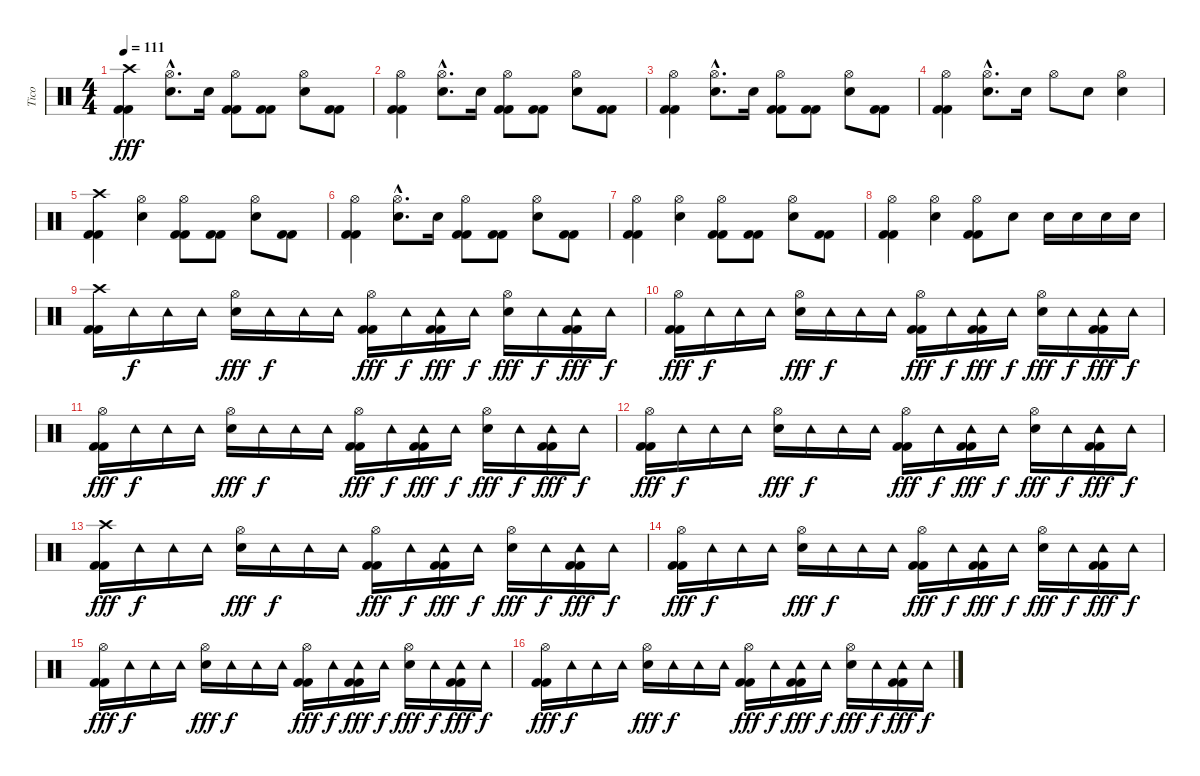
\track ("Tico" "Tico") {instrument percussion}
\staff {score}
\articulation defaults
\ts (4 4)
\tempo 111
\clef neutral
\ks c
("Crash high (hit)" "Kick (hit) 2" "Kick (hit) 2").4{dy fff} ("Hi-Hat (open)"{hac} "Snare (hit) 2"{hac}).8{d} "Snare (hit) 2".16 ("Hi-Hat (open)" "Kick (hit) 2" "Kick (hit) 2").8 ("Kick (hit) 2" "Kick (hit) 2").8 ("Hi-Hat (open)" "Snare (hit) 2").8 ("Kick (hit) 2" "Kick (hit) 2").8 |
("Hi-Hat (open)" "Kick (hit) 2" "Kick (hit) 2").4 ("Hi-Hat (open)"{hac} "Snare (hit) 2"{hac}).8{d} "Snare (hit) 2".16 ("Hi-Hat (open)" "Kick (hit) 2" "Kick (hit) 2").8 ("Kick (hit) 2" "Kick (hit) 2").8 ("Hi-Hat (open)" "Snare (hit) 2").8 ("Kick (hit) 2" "Kick (hit) 2").8 |
("Hi-Hat (open)" "Kick (hit) 2" "Kick (hit) 2").4 ("Hi-Hat (open)"{hac} "Snare (hit) 2"{hac}).8{d} "Snare (hit) 2".16 ("Hi-Hat (open)" "Kick (hit) 2" "Kick (hit) 2").8 ("Kick (hit) 2" "Kick (hit) 2").8 ("Hi-Hat (open)" "Snare (hit) 2").8 ("Kick (hit) 2" "Kick (hit) 2").8 |
("Hi-Hat (open)" "Kick (hit) 2" "Kick (hit) 2").4 ("Hi-Hat (open)"{hac} "Snare (hit) 2"{hac}).8{d} "Snare (hit) 2".16 "Hi-Hat (open)".8 "Snare (hit) 2".8 ("Hi-Hat (open)" "Snare (hit) 2").4 |
("Crash high (hit)" "Kick (hit) 2" "Kick (hit) 2").4 ("Hi-Hat (open)" "Snare (hit) 2").4 ("Hi-Hat (open)" "Kick (hit) 2" "Kick (hit) 2").8 ("Kick (hit) 2" "Kick (hit) 2").8 ("Hi-Hat (open)" "Snare (hit) 2").8 ("Kick (hit) 2" "Kick (hit) 2").8 |
("Hi-Hat (open)" "Kick (hit) 2" "Kick (hit) 2").4 ("Hi-Hat (open)"{hac} "Snare (hit) 2"{hac}).8{d} "Snare (hit) 2".16 ("Hi-Hat (open)" "Kick (hit) 2" "Kick (hit) 2").8 ("Kick (hit) 2" "Kick (hit) 2").8 ("Hi-Hat (open)" "Snare (hit) 2").8 ("Kick (hit) 2" "Kick (hit) 2").8 |
("Hi-Hat (open)" "Kick (hit) 2" "Kick (hit) 2").4 ("Hi-Hat (open)" "Snare (hit) 2").4 ("Hi-Hat (open)" "Kick (hit) 2" "Kick (hit) 2").8 ("Kick (hit) 2" "Kick (hit) 2").8 ("Hi-Hat (open)" "Snare (hit) 2").8 ("Kick (hit) 2" "Kick (hit) 2").8 |
("Hi-Hat (open)" "Kick (hit) 2" "Kick (hit) 2").4 ("Hi-Hat (open)" "Snare (hit) 2").4 ("Hi-Hat (open)" "Kick (hit) 2" "Kick (hit) 2").8 "Snare (hit) 2".8 "Snare (hit) 2".16 "Snare (hit) 2".16 "Snare (hit) 2".16 "Snare (hit) 2".16 |
("Crash high (hit)" "Kick (hit) 2" "Kick (hit) 2").16 "Tambourine (hit)".16{dy f} "Tambourine (hit)".16 "Tambourine (hit)".16 ("Hi-Hat (open)" "Snare (hit) 2").16{dy fff} "Tambourine (hit)".16{dy f} "Tambourine (hit)".16 "Tambourine (hit)".16 ("Hi-Hat (open)" "Kick (hit) 2" "Kick (hit) 2").16{dy fff} "Tambourine (hit)".16{dy f} ("Tambourine (hit)" "Kick (hit) 2" "Kick (hit) 2").16{dy fff} "Tambourine (hit)".16{dy f} ("Hi-Hat (open)" "Snare (hit) 2").16{dy fff} "Tambourine (hit)".16{dy f} ("Tambourine (hit)" "Kick (hit) 2" "Kick (hit) 2").16{dy fff} "Tambourine (hit)".16{dy f} |
("Hi-Hat (open)" "Kick (hit) 2" "Kick (hit) 2").16{dy fff} "Tambourine (hit)".16{dy f} "Tambourine (hit)".16 "Tambourine (hit)".16 ("Hi-Hat (open)" "Snare (hit) 2").16{dy fff} "Tambourine (hit)".16{dy f} "Tambourine (hit)".16 "Tambourine (hit)".16 ("Hi-Hat (open)" "Kick (hit) 2" "Kick (hit) 2").16{dy fff} "Tambourine (hit)".16{dy f} ("Tambourine (hit)" "Kick (hit) 2" "Kick (hit) 2").16{dy fff} "Tambourine (hit)".16{dy f} ("Hi-Hat (open)" "Snare (hit) 2").16{dy fff} "Tambourine (hit)".16{dy f} ("Tambourine (hit)" "Kick (hit) 2" "Kick (hit) 2").16{dy fff} "Tambourine (hit)".16{dy f} |
("Hi-Hat (open)" "Kick (hit) 2" "Kick (hit) 2").16{dy fff} "Tambourine (hit)".16{dy f} "Tambourine (hit)".16 "Tambourine (hit)".16 ("Hi-Hat (open)" "Snare (hit) 2").16{dy fff} "Tambourine (hit)".16{dy f} "Tambourine (hit)".16 "Tambourine (hit)".16 ("Hi-Hat (open)" "Kick (hit) 2" "Kick (hit) 2").16{dy fff} "Tambourine (hit)".16{dy f} ("Tambourine (hit)" "Kick (hit) 2" "Kick (hit) 2").16{dy fff} "Tambourine (hit)".16{dy f} ("Hi-Hat (open)" "Snare (hit) 2").16{dy fff} "Tambourine (hit)".16{dy f} ("Tambourine (hit)" "Kick (hit) 2" "Kick (hit) 2").16{dy fff} "Tambourine (hit)".16{dy f} |
("Hi-Hat (open)" "Kick (hit) 2" "Kick (hit) 2").16{dy fff} "Tambourine (hit)".16{dy f} "Tambourine (hit)".16 "Tambourine (hit)".16 ("Hi-Hat (open)" "Snare (hit) 2").16{dy fff} "Tambourine (hit)".16{dy f} "Tambourine (hit)".16 "Tambourine (hit)".16 ("Hi-Hat (open)" "Kick (hit) 2" "Kick (hit) 2").16{dy fff} "Tambourine (hit)".16{dy f} ("Tambourine (hit)" "Kick (hit) 2" "Kick (hit) 2").16{dy fff} "Tambourine (hit)".16{dy f} ("Hi-Hat (open)" "Snare (hit) 2").16{dy fff} "Tambourine (hit)".16{dy f} ("Tambourine (hit)" "Kick (hit) 2" "Kick (hit) 2").16{dy fff} "Tambourine (hit)".16{dy f} |
("Crash high (hit)" "Kick (hit) 2" "Kick (hit) 2").16{dy fff} "Tambourine (hit)".16{dy f} "Tambourine (hit)".16 "Tambourine (hit)".16 ("Hi-Hat (open)" "Snare (hit) 2").16{dy fff} "Tambourine (hit)".16{dy f} "Tambourine (hit)".16 "Tambourine (hit)".16 ("Hi-Hat (open)" "Kick (hit) 2" "Kick (hit) 2").16{dy fff} "Tambourine (hit)".16{dy f} ("Tambourine (hit)" "Kick (hit) 2" "Kick (hit) 2").16{dy fff} "Tambourine (hit)".16{dy f} ("Hi-Hat (open)" "Snare (hit) 2").16{dy fff} "Tambourine (hit)".16{dy f} ("Tambourine (hit)" "Kick (hit) 2" "Kick (hit) 2").16{dy fff} "Tambourine (hit)".16{dy f} |
("Hi-Hat (open)" "Kick (hit) 2" "Kick (hit) 2").16{dy fff} "Tambourine (hit)".16{dy f} "Tambourine (hit)".16 "Tambourine (hit)".16 ("Hi-Hat (open)" "Snare (hit) 2").16{dy fff} "Tambourine (hit)".16{dy f} "Tambourine (hit)".16 "Tambourine (hit)".16 ("Hi-Hat (open)" "Kick (hit) 2" "Kick (hit) 2").16{dy fff} "Tambourine (hit)".16{dy f} ("Tambourine (hit)" "Kick (hit) 2" "Kick (hit) 2").16{dy fff} "Tambourine (hit)".16{dy f} ("Hi-Hat (open)" "Snare (hit) 2").16{dy fff} "Tambourine (hit)".16{dy f} ("Tambourine (hit)" "Kick (hit) 2" "Kick (hit) 2").16{dy fff} "Tambourine (hit)".16{dy f} |
("Hi-Hat (open)" "Kick (hit) 2" "Kick (hit) 2").16{dy fff} "Tambourine (hit)".16{dy f} "Tambourine (hit)".16 "Tambourine (hit)".16 ("Hi-Hat (open)" "Snare (hit) 2").16{dy fff} "Tambourine (hit)".16{dy f} "Tambourine (hit)".16 "Tambourine (hit)".16 ("Hi-Hat (open)" "Kick (hit) 2" "Kick (hit) 2").16{dy fff} "Tambourine (hit)".16{dy f} ("Tambourine (hit)" "Kick (hit) 2" "Kick (hit) 2").16{dy fff} "Tambourine (hit)".16{dy f} ("Hi-Hat (open)" "Snare (hit) 2").16{dy fff} "Tambourine (hit)".16{dy f} ("Tambourine (hit)" "Kick (hit) 2" "Kick (hit) 2").16{dy fff} "Tambourine (hit)".16{dy f} |
("Hi-Hat (open)" "Kick (hit) 2" "Kick (hit) 2").16{dy fff} "Tambourine (hit)".16{dy f} "Tambourine (hit)".16 "Tambourine (hit)".16 ("Hi-Hat (open)" "Snare (hit) 2").16{dy fff} "Tambourine (hit)".16{dy f} "Tambourine (hit)".16 "Tambourine (hit)".16 ("Hi-Hat (open)" "Kick (hit) 2" "Kick (hit) 2").16{dy fff} "Tambourine (hit)".16{dy f} ("Tambourine (hit)" "Kick (hit) 2" "Kick (hit) 2").16{dy fff} "Tambourine (hit)".16{dy f} ("Hi-Hat (open)" "Snare (hit) 2").16{dy fff} "Tambourine (hit)".16{dy f} ("Tambourine (hit)" "Kick (hit) 2" "Kick (hit) 2").16{dy fff} "Tambourine (hit)".16{dy f}
